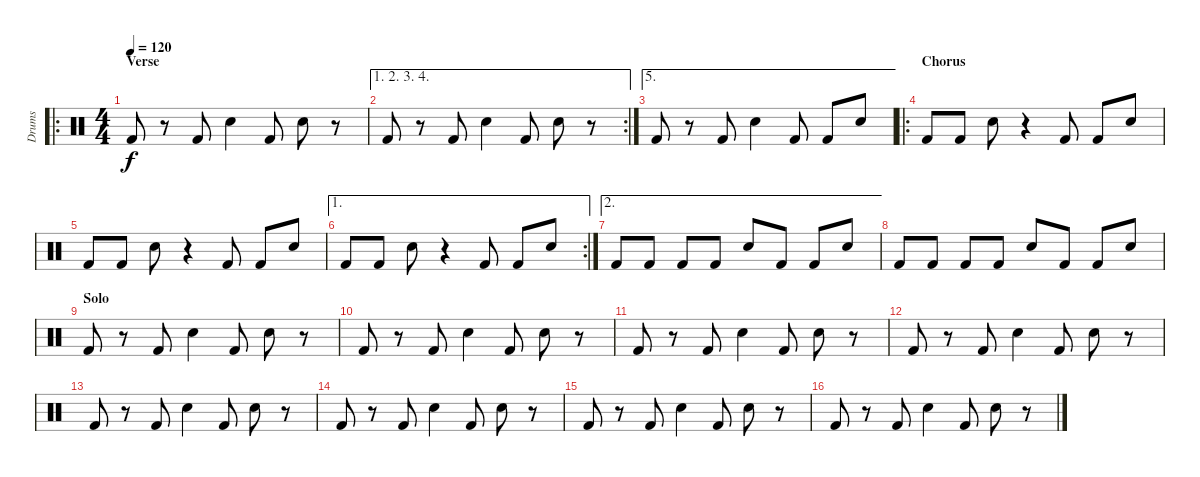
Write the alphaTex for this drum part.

\track ("Drums" "Drums") {instrument percussion}
\staff {score}
\articulation defaults
\ro
\ts (4 4)
\section ("" "Verse")
\tempo 120
\clef neutral
\ks c "Kick (hit) 2".8{dy f}
r.8 "Kick (hit) 2".8 "Snare (hit) 2".4 "Kick (hit) 2".8 "Snare (hit) 2".8 r.8 |
\ae (1 2 3 4)
\rc 2 "Kick (hit) 2".8
r.8 "Kick (hit) 2".8 "Snare (hit) 2".4 "Kick (hit) 2".8 "Snare (hit) 2".8 r.8 |
\ae 5 "Kick (hit) 2".8
r.8 "Kick (hit) 2".8 "Snare (hit) 2".4 "Kick (hit) 2".8 "Kick (hit) 2".8 "Snare (hit) 2".8 |
\ro
\section ("" "Chorus")
"Kick (hit) 2".8 "Kick (hit) 2".8 "Snare (hit) 2".8 r.4 "Kick (hit) 2".8 "Kick (hit) 2".8 "Snare (hit) 2".8 |
"Kick (hit) 2".8 "Kick (hit) 2".8 "Snare (hit) 2".8 r.4 "Kick (hit) 2".8 "Kick (hit) 2".8 "Snare (hit) 2".8 |
\ae 1
\rc 2 "Kick (hit) 2".8 "Kick (hit) 2".8 "Snare (hit) 2".8
r.4 "Kick (hit) 2".8 "Kick (hit) 2".8 "Snare (hit) 2".8 |
\ae 2 "Kick (hit) 2".8 "Kick (hit) 2".8 "Kick (hit) 2".8 "Kick (hit) 2".8 "Snare (hit) 2".8 "Kick (hit) 2".8 "Kick (hit) 2".8 "Snare (hit) 2".8
|
"Kick (hit) 2".8 "Kick (hit) 2".8 "Kick (hit) 2".8 "Kick (hit) 2".8 "Snare (hit) 2".8 "Kick (hit) 2".8 "Kick (hit) 2".8 "Snare (hit) 2".8 |
\section ("" "Solo")
"Kick (hit) 2".8 r.8 "Kick (hit) 2".8 "Snare (hit) 2".4 "Kick (hit) 2".8 "Snare (hit) 2".8 r.8 |
"Kick (hit) 2".8 r.8 "Kick (hit) 2".8 "Snare (hit) 2".4 "Kick (hit) 2".8 "Snare (hit) 2".8 r.8 |
"Kick (hit) 2".8 r.8 "Kick (hit) 2".8 "Snare (hit) 2".4 "Kick (hit) 2".8 "Snare (hit) 2".8 r.8 |
"Kick (hit) 2".8 r.8 "Kick (hit) 2".8 "Snare (hit) 2".4 "Kick (hit) 2".8 "Snare (hit) 2".8 r.8 |
"Kick (hit) 2".8 r.8 "Kick (hit) 2".8 "Snare (hit) 2".4 "Kick (hit) 2".8 "Snare (hit) 2".8 r.8 |
"Kick (hit) 2".8 r.8 "Kick (hit) 2".8 "Snare (hit) 2".4 "Kick (hit) 2".8 "Snare (hit) 2".8 r.8 |
"Kick (hit) 2".8 r.8 "Kick (hit) 2".8 "Snare (hit) 2".4 "Kick (hit) 2".8 "Snare (hit) 2".8 r.8 |
"Kick (hit) 2".8 r.8 "Kick (hit) 2".8 "Snare (hit) 2".4 "Kick (hit) 2".8 "Snare (hit) 2".8 r.8
